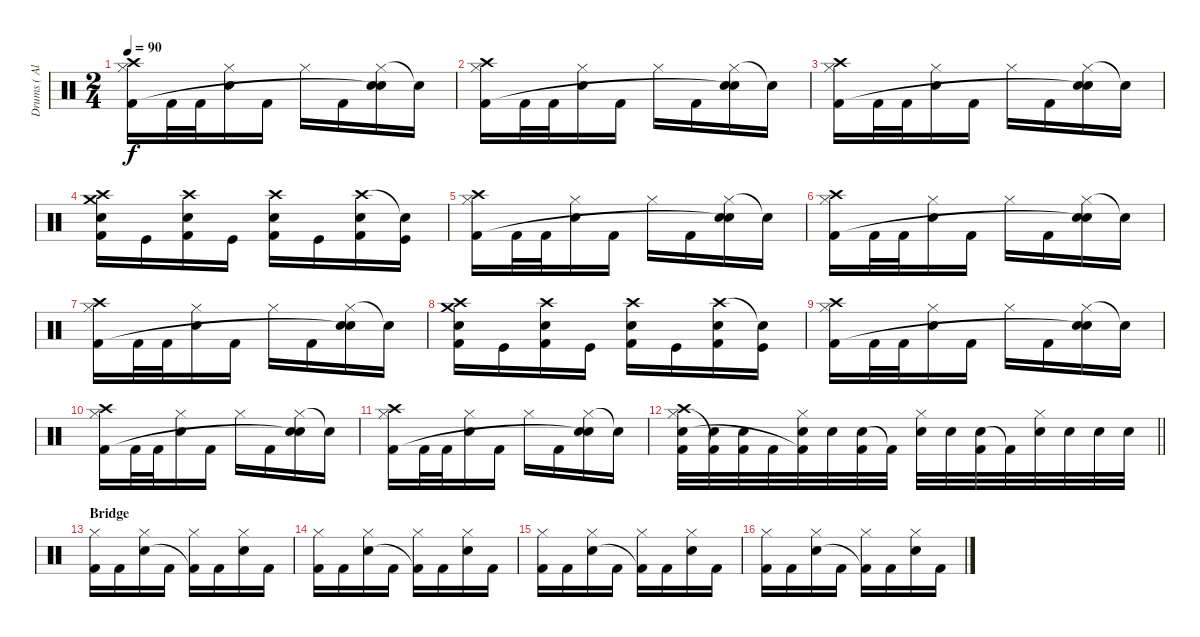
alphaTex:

\track ("Drums ( Alex Holzwarth)" "Drums ( Al") {instrument percussion}
\staff {score}
\articulation defaults
\ts (2 4)
\tempo 90
\clef neutral
\ks c
("Crash high (hit)" "Hi-Hat (closed)" "Kick (hit) 2").16{dy f} "Kick (hit) 2".32 "Kick (hit) 2".32 ("Hi-Hat (closed)" "Electric Snare (hit)").16 "Kick (hit) 2".16 "Hi-Hat (closed)".16 "Kick (hit) 2".16 ("Hi-Hat (closed)" "Electric Snare (hit)" "Snare (hit)"{t}).16 "Snare (hit)"{t}.16 |
("Crash high (hit)" "Hi-Hat (closed)" "Kick (hit) 2").16 "Kick (hit) 2".32 "Kick (hit) 2".32 ("Hi-Hat (closed)" "Electric Snare (hit)").16 "Kick (hit) 2".16 "Hi-Hat (closed)".16 "Kick (hit) 2".16 ("Hi-Hat (closed)" "Electric Snare (hit)" "Snare (hit)"{t}).16 "Snare (hit)"{t}.16 |
("Crash high (hit)" "Hi-Hat (closed)" "Kick (hit) 2").16 "Kick (hit) 2".32 "Kick (hit) 2".32 ("Hi-Hat (closed)" "Electric Snare (hit)").16 "Kick (hit) 2".16 "Hi-Hat (closed)".16 "Kick (hit) 2".16 ("Hi-Hat (closed)" "Electric Snare (hit)" "Snare (hit)"{t}).16 "Snare (hit)"{t}.16 |
("Crash high (hit)" "Crash medium (hit)" "Snare (hit) 2" "Kick (hit) 2").16 "Kick (hit)".16 ("Crash high (hit)" "Snare (hit) 2" "Kick (hit) 2").16 "Kick (hit)".16 ("Crash high (hit)" "Snare (hit) 2" "Kick (hit) 2").16 "Kick (hit)".16 ("Crash high (hit)" "Snare (hit) 2" "Kick (hit) 2").16 ("Snare (hit)"{t} "Kick (hit)").16 |
("Crash high (hit)" "Hi-Hat (closed)" "Kick (hit) 2").16 "Kick (hit) 2".32 "Kick (hit) 2".32 ("Hi-Hat (closed)" "Electric Snare (hit)").16 "Kick (hit) 2".16 "Hi-Hat (closed)".16 "Kick (hit) 2".16 ("Hi-Hat (closed)" "Electric Snare (hit)" "Snare (hit)"{t}).16 "Snare (hit)"{t}.16 |
("Crash high (hit)" "Hi-Hat (closed)" "Kick (hit) 2").16 "Kick (hit) 2".32 "Kick (hit) 2".32 ("Hi-Hat (closed)" "Electric Snare (hit)").16 "Kick (hit) 2".16 "Hi-Hat (closed)".16 "Kick (hit) 2".16 ("Hi-Hat (closed)" "Electric Snare (hit)" "Snare (hit)"{t}).16 "Snare (hit)"{t}.16 |
("Crash high (hit)" "Hi-Hat (closed)" "Kick (hit) 2").16 "Kick (hit) 2".32 "Kick (hit) 2".32 ("Hi-Hat (closed)" "Electric Snare (hit)").16 "Kick (hit) 2".16 "Hi-Hat (closed)".16 "Kick (hit) 2".16 ("Hi-Hat (closed)" "Electric Snare (hit)" "Snare (hit)"{t}).16 "Snare (hit)"{t}.16 |
("Crash high (hit)" "Crash medium (hit)" "Snare (hit) 2" "Kick (hit) 2").16 "Kick (hit)".16 ("Crash high (hit)" "Snare (hit) 2" "Kick (hit) 2").16 "Kick (hit)".16 ("Crash high (hit)" "Snare (hit) 2" "Kick (hit) 2").16 "Kick (hit)".16 ("Crash high (hit)" "Snare (hit) 2" "Kick (hit) 2").16 ("Snare (hit)"{t} "Kick (hit)").16 |
("Crash high (hit)" "Hi-Hat (closed)" "Kick (hit) 2").16 "Kick (hit) 2".32 "Kick (hit) 2".32 ("Hi-Hat (closed)" "Electric Snare (hit)").16 "Kick (hit) 2".16 "Hi-Hat (closed)".16 "Kick (hit) 2".16 ("Hi-Hat (closed)" "Electric Snare (hit)" "Snare (hit)"{t}).16 "Snare (hit)"{t}.16 |
("Crash high (hit)" "Hi-Hat (closed)" "Kick (hit) 2").16 "Kick (hit) 2".32 "Kick (hit) 2".32 ("Hi-Hat (closed)" "Electric Snare (hit)").16 "Kick (hit) 2".16 "Hi-Hat (closed)".16 "Kick (hit) 2".16 ("Hi-Hat (closed)" "Electric Snare (hit)" "Snare (hit)"{t}).16 "Snare (hit)"{t}.16 |
("Crash high (hit)" "Hi-Hat (closed)" "Kick (hit) 2").16 "Kick (hit) 2".32 "Kick (hit) 2".32 ("Hi-Hat (closed)" "Electric Snare (hit)").16 "Kick (hit) 2".16 "Hi-Hat (closed)".16 "Kick (hit) 2".16 ("Hi-Hat (closed)" "Electric Snare (hit)" "Snare (hit)"{t}).16 "Snare (hit)"{t}.16 |
\barLineRight lightlight
("Crash high (hit)" "Hi-Hat (closed)" "Electric Snare (hit)" "Kick (hit) 2").32 ("Electric Snare (hit)" "Kick (hit) 2"{t}).32 ("Electric Snare (hit)" "Kick (hit) 2").32 "Kick (hit) 2".32 ("Hi-Hat (closed)" "Electric Snare (hit)" "Kick (hit) 2"{t}).32 "Electric Snare (hit)".32 ("Electric Snare (hit)" "Kick (hit) 2").32 "Kick (hit) 2"{t}.32 ("Hi-Hat (closed)" "Electric Snare (hit)").32 "Electric Snare (hit)".32 ("Electric Snare (hit)" "Kick (hit) 2").32 "Kick (hit) 2"{t}.32 ("Hi-Hat (closed)" "Electric Snare (hit)").32 "Electric Snare (hit)".32 "Electric Snare (hit)".32 "Electric Snare (hit)".32 |
\section ("" "Bridge")
("Hi-Hat (closed)" "Kick (hit) 2").16 "Kick (hit) 2".16 ("Hi-Hat (closed)" "Electric Snare (hit)").16 "Kick (hit) 2".16 ("Hi-Hat (closed)" "Kick (hit) 2"{t}).16 "Kick (hit) 2".16 ("Hi-Hat (closed)" "Electric Snare (hit)").16 "Kick (hit) 2".16 |
("Hi-Hat (closed)" "Kick (hit) 2").16 "Kick (hit) 2".16 ("Hi-Hat (closed)" "Electric Snare (hit)").16 "Kick (hit) 2".16 ("Hi-Hat (closed)" "Kick (hit) 2"{t}).16 "Kick (hit) 2".16 ("Hi-Hat (closed)" "Electric Snare (hit)").16 "Kick (hit) 2".16 |
("Hi-Hat (closed)" "Kick (hit) 2").16 "Kick (hit) 2".16 ("Hi-Hat (closed)" "Electric Snare (hit)").16 "Kick (hit) 2".16 ("Hi-Hat (closed)" "Kick (hit) 2"{t}).16 "Kick (hit) 2".16 ("Hi-Hat (closed)" "Electric Snare (hit)").16 "Kick (hit) 2".16 |
("Hi-Hat (closed)" "Kick (hit) 2").16 "Kick (hit) 2".16 ("Hi-Hat (closed)" "Electric Snare (hit)").16 "Kick (hit) 2".16 ("Hi-Hat (closed)" "Kick (hit) 2"{t}).16 "Kick (hit) 2".16 ("Hi-Hat (closed)" "Electric Snare (hit)").16 "Kick (hit) 2".16
